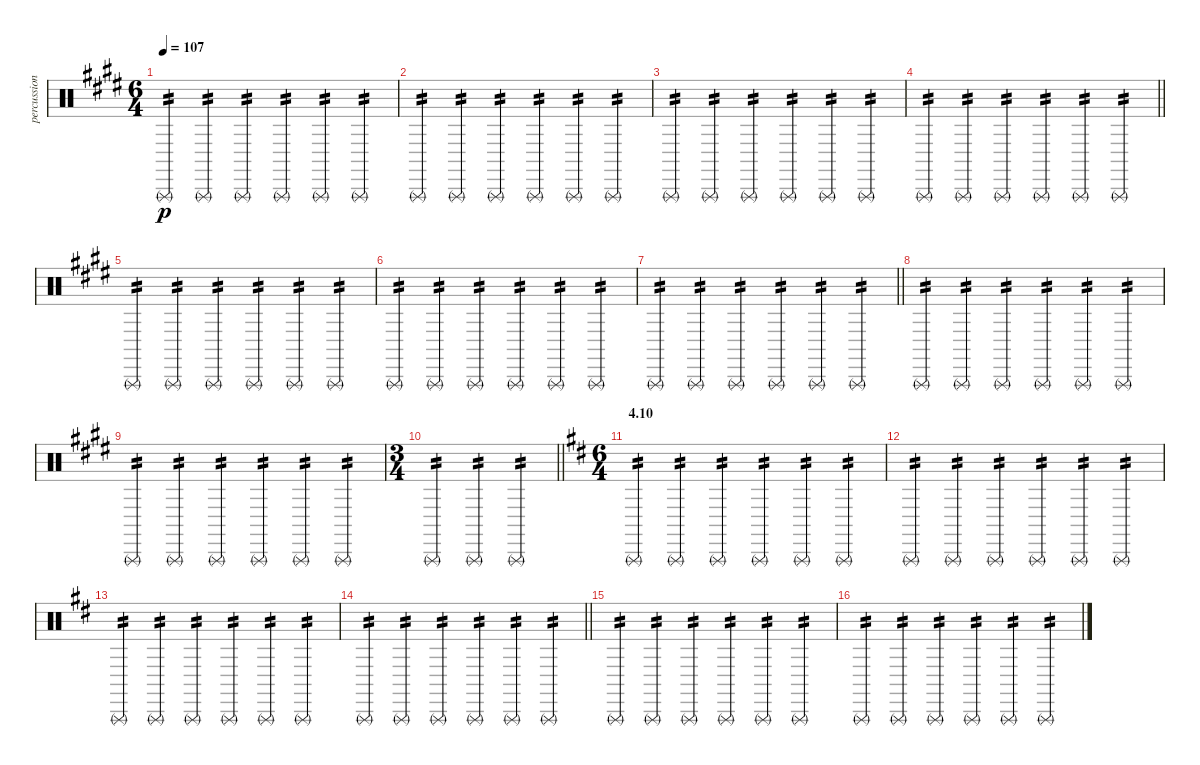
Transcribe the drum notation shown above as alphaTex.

\track ("percussion" "percussion") {instrument percussion}
\staff {score}
\articulation defaults
\ts (6 4)
\tempo 107
\clef neutral
\ks e "Triangle (rnute)".4{tp 2 dy p} "Triangle (rnute)".4{tp 2} "Triangle (rnute)".4{tp 2} "Triangle (rnute)".4{tp 2} "Triangle (rnute)".4{tp 2} "Triangle (rnute)".4{tp 2}
|
"Triangle (rnute)".4{tp 2} "Triangle (rnute)".4{tp 2} "Triangle (rnute)".4{tp 2} "Triangle (rnute)".4{tp 2} "Triangle (rnute)".4{tp 2} "Triangle (rnute)".4{tp 2} |
"Triangle (rnute)".4{tp 2} "Triangle (rnute)".4{tp 2} "Triangle (rnute)".4{tp 2} "Triangle (rnute)".4{tp 2} "Triangle (rnute)".4{tp 2} "Triangle (rnute)".4{tp 2} |
\barLineRight lightlight "Triangle (rnute)".4{tp 2} "Triangle (rnute)".4{tp 2} "Triangle (rnute)".4{tp 2} "Triangle (rnute)".4{tp 2} "Triangle (rnute)".4{tp 2} "Triangle (rnute)".4{tp 2}
|
"Triangle (rnute)".4{tp 2} "Triangle (rnute)".4{tp 2} "Triangle (rnute)".4{tp 2} "Triangle (rnute)".4{tp 2} "Triangle (rnute)".4{tp 2} "Triangle (rnute)".4{tp 2} |
"Triangle (rnute)".4{tp 2} "Triangle (rnute)".4{tp 2} "Triangle (rnute)".4{tp 2} "Triangle (rnute)".4{tp 2} "Triangle (rnute)".4{tp 2} "Triangle (rnute)".4{tp 2} |
\barLineRight lightlight "Triangle (rnute)".4{tp 2} "Triangle (rnute)".4{tp 2} "Triangle (rnute)".4{tp 2} "Triangle (rnute)".4{tp 2} "Triangle (rnute)".4{tp 2} "Triangle (rnute)".4{tp 2}
|
"Triangle (rnute)".4{tp 2} "Triangle (rnute)".4{tp 2} "Triangle (rnute)".4{tp 2} "Triangle (rnute)".4{tp 2} "Triangle (rnute)".4{tp 2} "Triangle (rnute)".4{tp 2} |
"Triangle (rnute)".4{tp 2} "Triangle (rnute)".4{tp 2} "Triangle (rnute)".4{tp 2} "Triangle (rnute)".4{tp 2} "Triangle (rnute)".4{tp 2} "Triangle (rnute)".4{tp 2} |
\ts (3 4)
\barLineRight lightlight "Triangle (rnute)".4{tp 2} "Triangle (rnute)".4{tp 2} "Triangle (rnute)".4{tp 2}
|
\ts (6 4)
\section ("" "4.10")
\ks d "Triangle (rnute)".4{tp 2} "Triangle (rnute)".4{tp 2} "Triangle (rnute)".4{tp 2} "Triangle (rnute)".4{tp 2} "Triangle (rnute)".4{tp 2} "Triangle (rnute)".4{tp 2}
|
"Triangle (rnute)".4{tp 2} "Triangle (rnute)".4{tp 2} "Triangle (rnute)".4{tp 2} "Triangle (rnute)".4{tp 2} "Triangle (rnute)".4{tp 2} "Triangle (rnute)".4{tp 2} |
"Triangle (rnute)".4{tp 2} "Triangle (rnute)".4{tp 2} "Triangle (rnute)".4{tp 2} "Triangle (rnute)".4{tp 2} "Triangle (rnute)".4{tp 2} "Triangle (rnute)".4{tp 2} |
\barLineRight lightlight "Triangle (rnute)".4{tp 2} "Triangle (rnute)".4{tp 2} "Triangle (rnute)".4{tp 2} "Triangle (rnute)".4{tp 2} "Triangle (rnute)".4{tp 2} "Triangle (rnute)".4{tp 2}
|
"Triangle (rnute)".4{tp 2} "Triangle (rnute)".4{tp 2} "Triangle (rnute)".4{tp 2} "Triangle (rnute)".4{tp 2} "Triangle (rnute)".4{tp 2} "Triangle (rnute)".4{tp 2} |
"Triangle (rnute)".4{tp 2} "Triangle (rnute)".4{tp 2} "Triangle (rnute)".4{tp 2} "Triangle (rnute)".4{tp 2} "Triangle (rnute)".4{tp 2} "Triangle (rnute)".4{tp 2}
